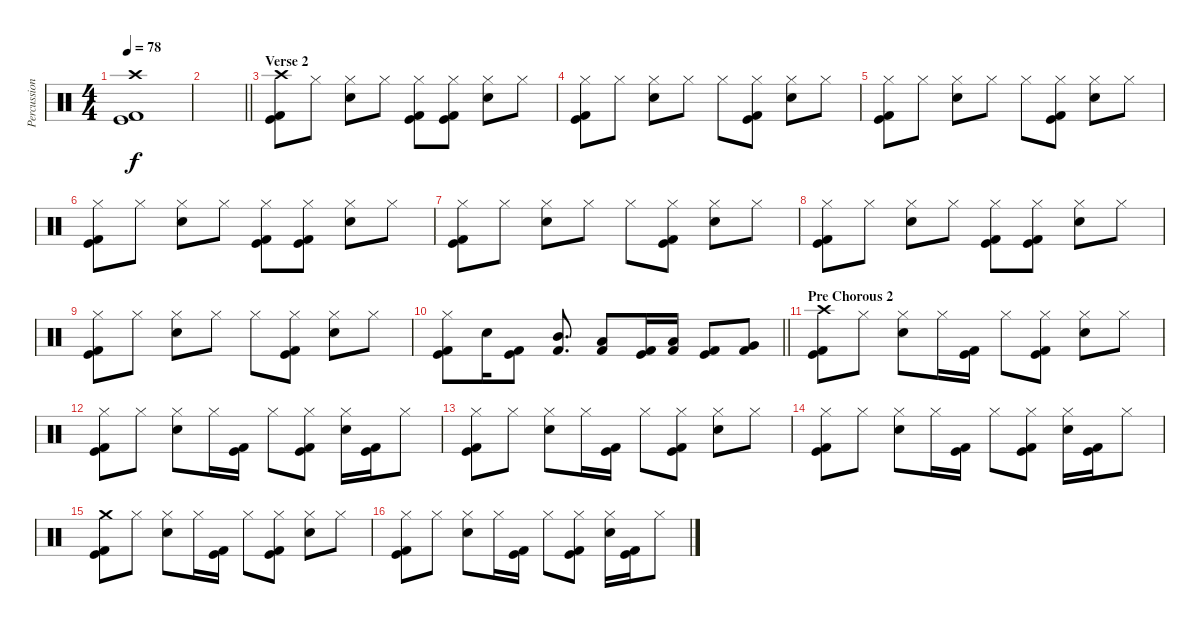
\track ("Percussion" "Percussion") {instrument percussion}
\staff {score}
\articulation defaults
\ts (4 4)
\section ("" "")
\tempo 78
\clef neutral
\ks c
("Crash high (hit)" "Kick (hit)" "Kick (hit) 2").1{dy f} |
\barLineRight lightlight
|
\section ("" "Verse 2")
("Crash high (hit)" "Kick (hit)" "Kick (hit) 2").8 "Hi-Hat (closed)".8 ("Hi-Hat (closed)" "Electric Snare (hit)").8 "Hi-Hat (closed)".8 ("Hi-Hat (closed)" "Kick (hit)" "Kick (hit) 2").8 ("Hi-Hat (closed)" "Kick (hit)" "Kick (hit) 2").8 ("Hi-Hat (closed)" "Electric Snare (hit)").8 "Hi-Hat (closed)".8 |
("Hi-Hat (closed)" "Kick (hit)" "Kick (hit) 2").8 "Hi-Hat (closed)".8 ("Hi-Hat (closed)" "Electric Snare (hit)").8 "Hi-Hat (closed)".8 "Hi-Hat (closed)".8 ("Hi-Hat (closed)" "Kick (hit)" "Kick (hit) 2").8 ("Hi-Hat (closed)" "Electric Snare (hit)").8 "Hi-Hat (closed)".8 |
("Hi-Hat (closed)" "Kick (hit)" "Kick (hit) 2").8 "Hi-Hat (closed)".8 ("Hi-Hat (closed)" "Electric Snare (hit)").8 "Hi-Hat (closed)".8 "Hi-Hat (closed)".8 ("Hi-Hat (closed)" "Kick (hit)" "Kick (hit) 2").8 ("Hi-Hat (closed)" "Electric Snare (hit)").8 "Hi-Hat (closed)".8 |
("Hi-Hat (closed)" "Kick (hit)" "Kick (hit) 2").8 "Hi-Hat (closed)".8 ("Hi-Hat (closed)" "Electric Snare (hit)").8 "Hi-Hat (closed)".8 ("Hi-Hat (closed)" "Kick (hit)" "Kick (hit) 2").8 ("Hi-Hat (closed)" "Kick (hit)" "Kick (hit) 2").8 ("Hi-Hat (closed)" "Electric Snare (hit)").8 "Hi-Hat (closed)".8 |
("Hi-Hat (closed)" "Kick (hit)" "Kick (hit) 2").8 "Hi-Hat (closed)".8 ("Hi-Hat (closed)" "Electric Snare (hit)").8 "Hi-Hat (closed)".8 "Hi-Hat (closed)".8 ("Hi-Hat (closed)" "Kick (hit)" "Kick (hit) 2").8 ("Hi-Hat (closed)" "Electric Snare (hit)").8 "Hi-Hat (closed)".8 |
("Hi-Hat (closed)" "Kick (hit)" "Kick (hit) 2").8 "Hi-Hat (closed)".8 ("Hi-Hat (closed)" "Electric Snare (hit)").8 "Hi-Hat (closed)".8 ("Hi-Hat (closed)" "Kick (hit)" "Kick (hit) 2").8 ("Hi-Hat (closed)" "Kick (hit)" "Kick (hit) 2").8 ("Hi-Hat (closed)" "Electric Snare (hit)").8 "Hi-Hat (closed)".8 |
("Hi-Hat (closed)" "Kick (hit)" "Kick (hit) 2").8 "Hi-Hat (closed)".8 ("Hi-Hat (closed)" "Electric Snare (hit)").8 "Hi-Hat (closed)".8 "Hi-Hat (closed)".8 ("Hi-Hat (closed)" "Kick (hit)" "Kick (hit) 2").8 ("Hi-Hat (closed)" "Electric Snare (hit)").8 "Hi-Hat (closed)".8 |
\barLineRight lightlight
("Hi-Hat (closed)" "Kick (hit)" "Kick (hit) 2").8 "Electric Snare (hit)".16 ("Kick (hit)" "Kick (hit) 2").8 ("Mid Tom (hit)" "Kick (hit) 2").8{d} ("Low Tom (hit)" "Kick (hit) 2").8 ("Kick (hit)" "Kick (hit) 2").16 ("Low Tom (hit)" "Kick (hit) 2").16 ("Kick (hit)" "Kick (hit) 2").8 ("Very Low Tom (hit)" "Kick (hit) 2").8 |
\section ("" "Pre Chorous 2")
("Crash high (hit)" "Kick (hit)" "Kick (hit) 2").8 "Hi-Hat (closed)".8 ("Hi-Hat (closed)" "Electric Snare (hit)").8 "Hi-Hat (closed)".16 ("Kick (hit)" "Kick (hit) 2").16 "Hi-Hat (closed)".8 ("Hi-Hat (closed)" "Kick (hit)" "Kick (hit) 2").8 ("Hi-Hat (closed)" "Electric Snare (hit)").8 "Hi-Hat (closed)".8 |
("Hi-Hat (closed)" "Kick (hit)" "Kick (hit) 2").8 "Hi-Hat (closed)".8 ("Hi-Hat (closed)" "Electric Snare (hit)").8 "Hi-Hat (closed)".16 ("Kick (hit)" "Kick (hit) 2").16 "Hi-Hat (closed)".8 ("Hi-Hat (closed)" "Kick (hit)" "Kick (hit) 2").8 ("Hi-Hat (closed)" "Electric Snare (hit)").16 ("Kick (hit)" "Kick (hit) 2").16 "Hi-Hat (closed)".8 |
("Hi-Hat (closed)" "Kick (hit)" "Kick (hit) 2").8 "Hi-Hat (closed)".8 ("Hi-Hat (closed)" "Electric Snare (hit)").8 "Hi-Hat (closed)".16 ("Kick (hit)" "Kick (hit) 2").16 "Hi-Hat (closed)".8 ("Hi-Hat (closed)" "Kick (hit)" "Kick (hit) 2").8 ("Hi-Hat (closed)" "Electric Snare (hit)").8 "Hi-Hat (closed)".8 |
("Hi-Hat (closed)" "Kick (hit)" "Kick (hit) 2").8 "Hi-Hat (closed)".8 ("Hi-Hat (closed)" "Electric Snare (hit)").8 "Hi-Hat (closed)".16 ("Kick (hit)" "Kick (hit) 2").16 "Hi-Hat (closed)".8 ("Hi-Hat (closed)" "Kick (hit)" "Kick (hit) 2").8 ("Hi-Hat (closed)" "Electric Snare (hit)").16 ("Kick (hit)" "Kick (hit) 2").16 "Hi-Hat (closed)".8 |
("Crash medium (hit)" "Kick (hit)" "Kick (hit) 2").8 "Hi-Hat (closed)".8 ("Hi-Hat (closed)" "Electric Snare (hit)").8 "Hi-Hat (closed)".16 ("Kick (hit)" "Kick (hit) 2").16 "Hi-Hat (closed)".8 ("Hi-Hat (closed)" "Kick (hit)" "Kick (hit) 2").8 ("Hi-Hat (closed)" "Electric Snare (hit)").8 "Hi-Hat (closed)".8 |
("Hi-Hat (closed)" "Kick (hit)" "Kick (hit) 2").8 "Hi-Hat (closed)".8 ("Hi-Hat (closed)" "Electric Snare (hit)").8 "Hi-Hat (closed)".16 ("Kick (hit)" "Kick (hit) 2").16 "Hi-Hat (closed)".8 ("Hi-Hat (closed)" "Kick (hit)" "Kick (hit) 2").8 ("Hi-Hat (closed)" "Electric Snare (hit)").16 ("Kick (hit)" "Kick (hit) 2").16 "Hi-Hat (closed)".8
